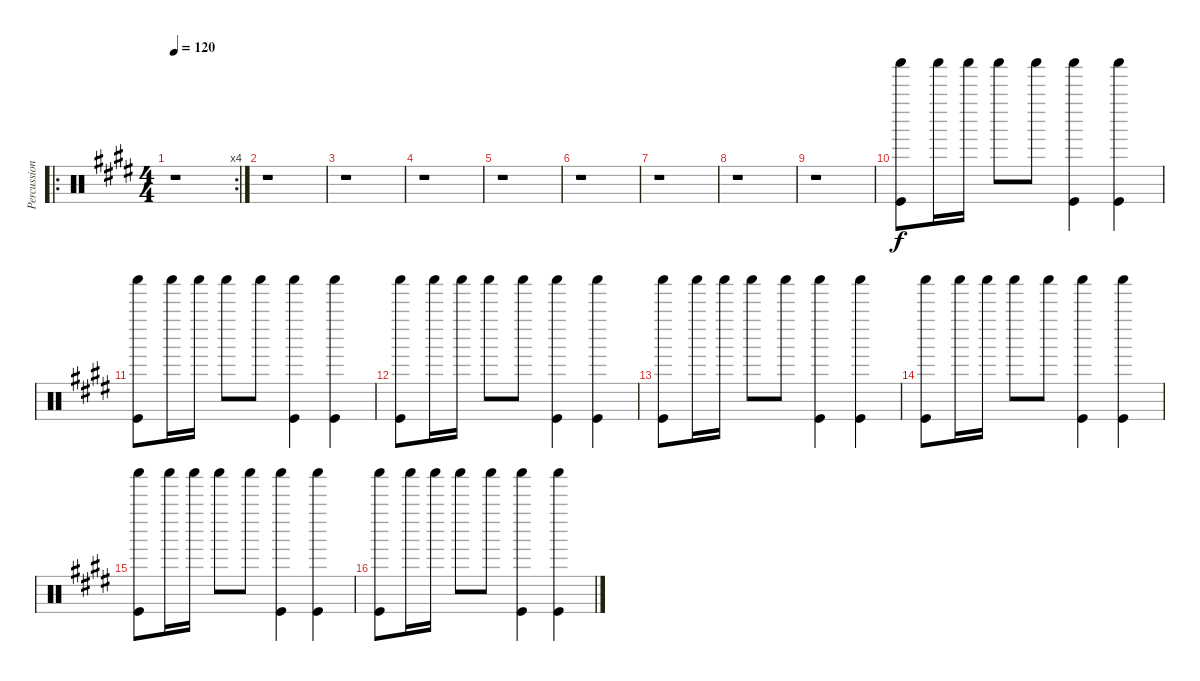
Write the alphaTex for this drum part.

\track ("Percussions" "Percussion") {instrument percussion}
\staff {score}
\articulation defaults
\ro
\rc 4
\ts (4 4)
\tempo 120
\clef neutral
\ks e
r.1{dy f} |
r.1 |
r.1 |
r.1 |
r.1 |
r.1 |
r.1 |
r.1 |
r.1 |
("Shaker (hit)" "Kick (hit)").8 "Shaker (hit)".16 "Shaker (hit)".16 "Shaker (hit)".8 "Shaker (hit)".8 ("Shaker (hit)" "Kick (hit)").4 ("Shaker (hit)" "Kick (hit)").4 |
("Shaker (hit)" "Kick (hit)").8 "Shaker (hit)".16 "Shaker (hit)".16 "Shaker (hit)".8 "Shaker (hit)".8 ("Shaker (hit)" "Kick (hit)").4 ("Shaker (hit)" "Kick (hit)").4 |
("Shaker (hit)" "Kick (hit)").8 "Shaker (hit)".16 "Shaker (hit)".16 "Shaker (hit)".8 "Shaker (hit)".8 ("Shaker (hit)" "Kick (hit)").4 ("Shaker (hit)" "Kick (hit)").4 |
("Shaker (hit)" "Kick (hit)").8 "Shaker (hit)".16 "Shaker (hit)".16 "Shaker (hit)".8 "Shaker (hit)".8 ("Shaker (hit)" "Kick (hit)").4 ("Shaker (hit)" "Kick (hit)").4 |
("Shaker (hit)" "Kick (hit)").8 "Shaker (hit)".16 "Shaker (hit)".16 "Shaker (hit)".8 "Shaker (hit)".8 ("Shaker (hit)" "Kick (hit)").4 ("Shaker (hit)" "Kick (hit)").4 |
("Shaker (hit)" "Kick (hit)").8 "Shaker (hit)".16 "Shaker (hit)".16 "Shaker (hit)".8 "Shaker (hit)".8 ("Shaker (hit)" "Kick (hit)").4 ("Shaker (hit)" "Kick (hit)").4 |
("Shaker (hit)" "Kick (hit)").8 "Shaker (hit)".16 "Shaker (hit)".16 "Shaker (hit)".8 "Shaker (hit)".8 ("Shaker (hit)" "Kick (hit)").4 ("Shaker (hit)" "Kick (hit)").4
